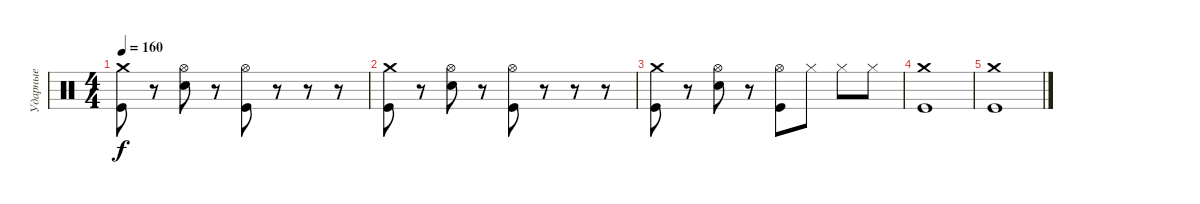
\track ("Ударные" "Ударные") {instrument percussion}
\staff {score}
\articulation defaults
\ts (4 4)
\section ("" " ")
\tempo 160
\clef neutral
\ks c
("Crash medium (hit)" "Kick (hit)").8{dy f} r.8 ("Hi-Hat (open)" "Electric Snare (hit)").8 r.8 ("Hi-Hat (open)" "Kick (hit)").8 r.8 r.8 r.8 |
("Crash medium (hit)" "Kick (hit)").8 r.8 ("Hi-Hat (open)" "Electric Snare (hit)").8 r.8 ("Hi-Hat (open)" "Kick (hit)").8 r.8 r.8 r.8 |
("Crash medium (hit)" "Kick (hit)").8 r.8 ("Hi-Hat (open)" "Electric Snare (hit)").8 r.8 ("Hi-Hat (open)" "Kick (hit)").8 "Hi-Hat (closed)".8 "Hi-Hat (closed)".8 "Hi-Hat (closed)".8 |
("Crash medium (hit)" "Kick (hit)").1 |
("Crash medium (hit)" "Kick (hit)").1
